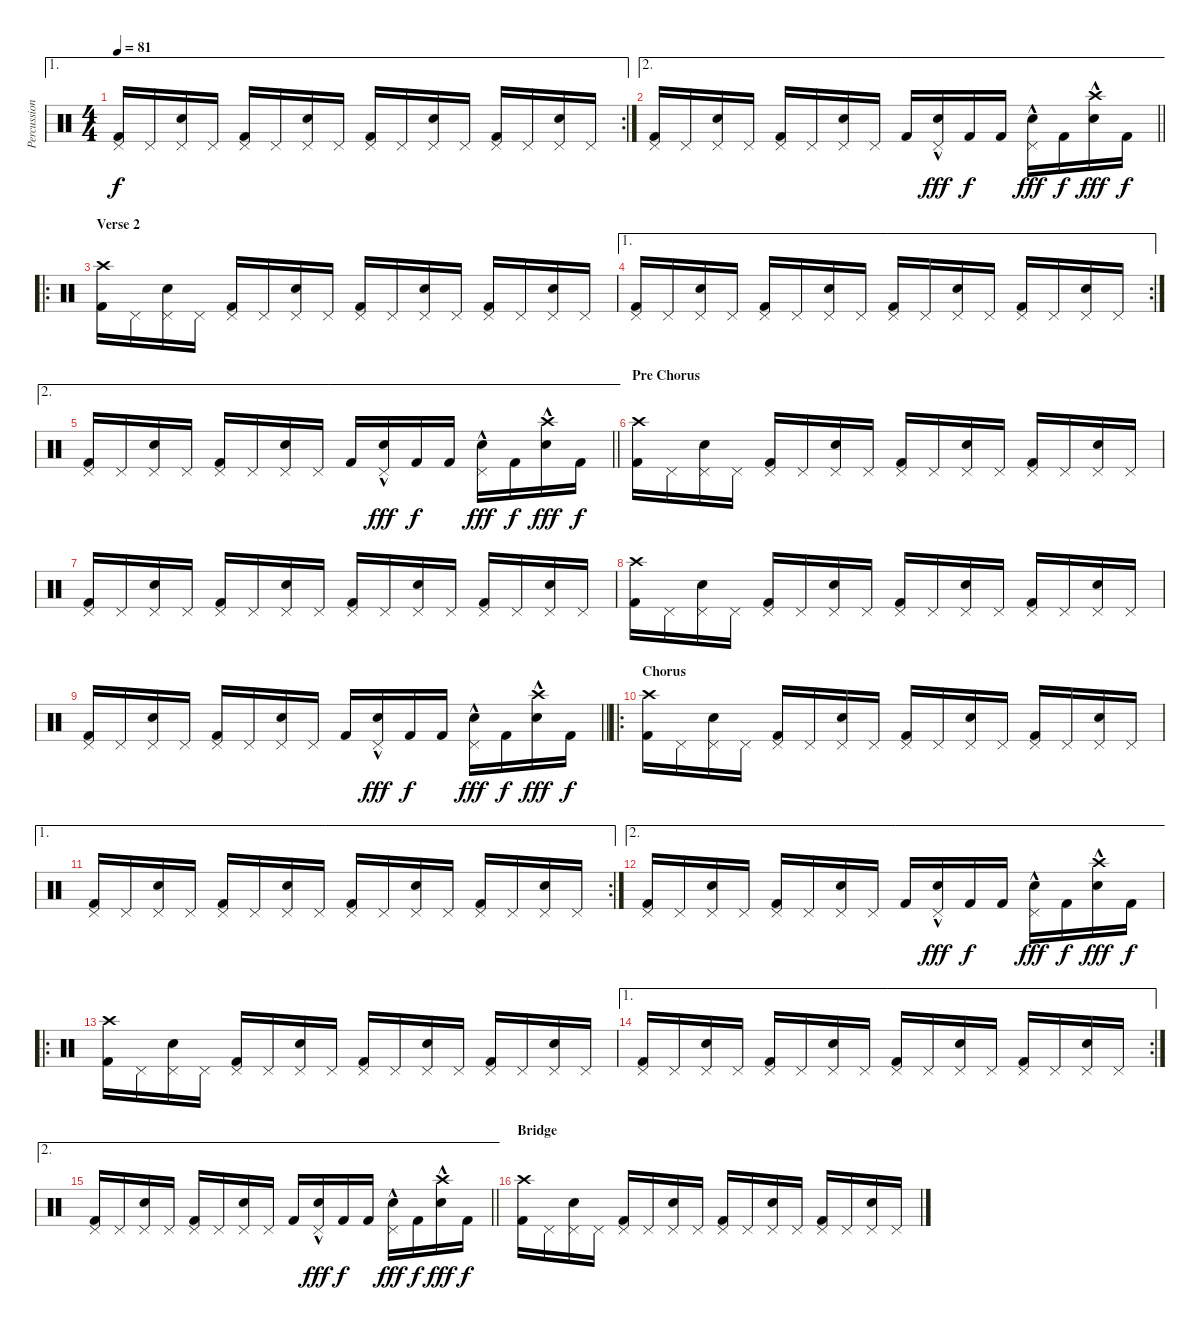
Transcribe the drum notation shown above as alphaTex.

\track ("Percussion" "Percussion") {instrument percussion}
\staff {score}
\articulation defaults
\ae 1
\rc 2
\ts (4 4)
\tempo 81
\clef neutral
\ks c
("Pedal Hi-Hat (hit)" "Kick (hit) 2").16{dy f} "Pedal Hi-Hat (hit)".16 ("Pedal Hi-Hat (hit)" "Electric Snare (hit)").16 "Pedal Hi-Hat (hit)".16 ("Pedal Hi-Hat (hit)" "Kick (hit) 2").16 "Pedal Hi-Hat (hit)".16 ("Pedal Hi-Hat (hit)" "Electric Snare (hit)").16 "Pedal Hi-Hat (hit)".16 ("Pedal Hi-Hat (hit)" "Kick (hit) 2").16 "Pedal Hi-Hat (hit)".16 ("Pedal Hi-Hat (hit)" "Electric Snare (hit)").16 "Pedal Hi-Hat (hit)".16 ("Pedal Hi-Hat (hit)" "Kick (hit) 2").16 "Pedal Hi-Hat (hit)".16 ("Pedal Hi-Hat (hit)" "Electric Snare (hit)").16 "Pedal Hi-Hat (hit)".16 |
\ae 2
\barLineRight lightlight
("Pedal Hi-Hat (hit)" "Kick (hit) 2").16 "Pedal Hi-Hat (hit)".16 ("Pedal Hi-Hat (hit)" "Electric Snare (hit)").16 "Pedal Hi-Hat (hit)".16 ("Pedal Hi-Hat (hit)" "Kick (hit) 2").16 "Pedal Hi-Hat (hit)".16 ("Pedal Hi-Hat (hit)" "Electric Snare (hit)").16 "Pedal Hi-Hat (hit)".16 "Kick (hit) 2".16 ("Pedal Hi-Hat (hit)"{hac} "Electric Snare (hit)"{hac}).16{dy fff} "Kick (hit) 2".16{dy f} "Kick (hit) 2".16 ("Pedal Hi-Hat (hit)"{hac} "Electric Snare (hit)"{hac}).16{dy fff} "Kick (hit) 2".16{dy f} ("Crash high (hit)"{hac} "Electric Snare (hit)"{hac}).16{dy fff} "Kick (hit) 2".16{dy f} |
\ro
\section ("" "Verse 2")
("Crash high (hit)" "Kick (hit) 2").16 "Pedal Hi-Hat (hit)".16 ("Pedal Hi-Hat (hit)" "Electric Snare (hit)").16 "Pedal Hi-Hat (hit)".16 ("Pedal Hi-Hat (hit)" "Kick (hit) 2").16 "Pedal Hi-Hat (hit)".16 ("Pedal Hi-Hat (hit)" "Electric Snare (hit)").16 "Pedal Hi-Hat (hit)".16 ("Pedal Hi-Hat (hit)" "Kick (hit) 2").16 "Pedal Hi-Hat (hit)".16 ("Pedal Hi-Hat (hit)" "Electric Snare (hit)").16 "Pedal Hi-Hat (hit)".16 ("Pedal Hi-Hat (hit)" "Kick (hit) 2").16 "Pedal Hi-Hat (hit)".16 ("Pedal Hi-Hat (hit)" "Electric Snare (hit)").16 "Pedal Hi-Hat (hit)".16 |
\ae 1
\rc 2
("Pedal Hi-Hat (hit)" "Kick (hit) 2").16 "Pedal Hi-Hat (hit)".16 ("Pedal Hi-Hat (hit)" "Electric Snare (hit)").16 "Pedal Hi-Hat (hit)".16 ("Pedal Hi-Hat (hit)" "Kick (hit) 2").16 "Pedal Hi-Hat (hit)".16 ("Pedal Hi-Hat (hit)" "Electric Snare (hit)").16 "Pedal Hi-Hat (hit)".16 ("Pedal Hi-Hat (hit)" "Kick (hit) 2").16 "Pedal Hi-Hat (hit)".16 ("Pedal Hi-Hat (hit)" "Electric Snare (hit)").16 "Pedal Hi-Hat (hit)".16 ("Pedal Hi-Hat (hit)" "Kick (hit) 2").16 "Pedal Hi-Hat (hit)".16 ("Pedal Hi-Hat (hit)" "Electric Snare (hit)").16 "Pedal Hi-Hat (hit)".16 |
\ae 2
\barLineRight lightlight
("Pedal Hi-Hat (hit)" "Kick (hit) 2").16 "Pedal Hi-Hat (hit)".16 ("Pedal Hi-Hat (hit)" "Electric Snare (hit)").16 "Pedal Hi-Hat (hit)".16 ("Pedal Hi-Hat (hit)" "Kick (hit) 2").16 "Pedal Hi-Hat (hit)".16 ("Pedal Hi-Hat (hit)" "Electric Snare (hit)").16 "Pedal Hi-Hat (hit)".16 "Kick (hit) 2".16 ("Pedal Hi-Hat (hit)"{hac} "Electric Snare (hit)"{hac}).16{dy fff} "Kick (hit) 2".16{dy f} "Kick (hit) 2".16 ("Pedal Hi-Hat (hit)"{hac} "Electric Snare (hit)"{hac}).16{dy fff} "Kick (hit) 2".16{dy f} ("Crash high (hit)"{hac} "Electric Snare (hit)"{hac}).16{dy fff} "Kick (hit) 2".16{dy f} |
\section ("" "Pre Chorus")
("Crash high (hit)" "Kick (hit) 2").16 "Pedal Hi-Hat (hit)".16 ("Pedal Hi-Hat (hit)" "Electric Snare (hit)").16 "Pedal Hi-Hat (hit)".16 ("Pedal Hi-Hat (hit)" "Kick (hit) 2").16 "Pedal Hi-Hat (hit)".16 ("Pedal Hi-Hat (hit)" "Electric Snare (hit)").16 "Pedal Hi-Hat (hit)".16 ("Pedal Hi-Hat (hit)" "Kick (hit) 2").16 "Pedal Hi-Hat (hit)".16 ("Pedal Hi-Hat (hit)" "Electric Snare (hit)").16 "Pedal Hi-Hat (hit)".16 ("Pedal Hi-Hat (hit)" "Kick (hit) 2").16 "Pedal Hi-Hat (hit)".16 ("Pedal Hi-Hat (hit)" "Electric Snare (hit)").16 "Pedal Hi-Hat (hit)".16 |
("Pedal Hi-Hat (hit)" "Kick (hit) 2").16 "Pedal Hi-Hat (hit)".16 ("Pedal Hi-Hat (hit)" "Electric Snare (hit)").16 "Pedal Hi-Hat (hit)".16 ("Pedal Hi-Hat (hit)" "Kick (hit) 2").16 "Pedal Hi-Hat (hit)".16 ("Pedal Hi-Hat (hit)" "Electric Snare (hit)").16 "Pedal Hi-Hat (hit)".16 ("Pedal Hi-Hat (hit)" "Kick (hit) 2").16 "Pedal Hi-Hat (hit)".16 ("Pedal Hi-Hat (hit)" "Electric Snare (hit)").16 "Pedal Hi-Hat (hit)".16 ("Pedal Hi-Hat (hit)" "Kick (hit) 2").16 "Pedal Hi-Hat (hit)".16 ("Pedal Hi-Hat (hit)" "Electric Snare (hit)").16 "Pedal Hi-Hat (hit)".16 |
("Crash high (hit)" "Kick (hit) 2").16 "Pedal Hi-Hat (hit)".16 ("Pedal Hi-Hat (hit)" "Electric Snare (hit)").16 "Pedal Hi-Hat (hit)".16 ("Pedal Hi-Hat (hit)" "Kick (hit) 2").16 "Pedal Hi-Hat (hit)".16 ("Pedal Hi-Hat (hit)" "Electric Snare (hit)").16 "Pedal Hi-Hat (hit)".16 ("Pedal Hi-Hat (hit)" "Kick (hit) 2").16 "Pedal Hi-Hat (hit)".16 ("Pedal Hi-Hat (hit)" "Electric Snare (hit)").16 "Pedal Hi-Hat (hit)".16 ("Pedal Hi-Hat (hit)" "Kick (hit) 2").16 "Pedal Hi-Hat (hit)".16 ("Pedal Hi-Hat (hit)" "Electric Snare (hit)").16 "Pedal Hi-Hat (hit)".16 |
\barLineRight lightlight
("Pedal Hi-Hat (hit)" "Kick (hit) 2").16 "Pedal Hi-Hat (hit)".16 ("Pedal Hi-Hat (hit)" "Electric Snare (hit)").16 "Pedal Hi-Hat (hit)".16 ("Pedal Hi-Hat (hit)" "Kick (hit) 2").16 "Pedal Hi-Hat (hit)".16 ("Pedal Hi-Hat (hit)" "Electric Snare (hit)").16 "Pedal Hi-Hat (hit)".16 "Kick (hit) 2".16 ("Pedal Hi-Hat (hit)"{hac} "Electric Snare (hit)"{hac}).16{dy fff} "Kick (hit) 2".16{dy f} "Kick (hit) 2".16 ("Pedal Hi-Hat (hit)"{hac} "Electric Snare (hit)"{hac}).16{dy fff} "Kick (hit) 2".16{dy f} ("Crash high (hit)"{hac} "Electric Snare (hit)"{hac}).16{dy fff} "Kick (hit) 2".16{dy f} |
\ro
\section ("" "Chorus")
("Crash high (hit)" "Kick (hit) 2").16 "Pedal Hi-Hat (hit)".16 ("Pedal Hi-Hat (hit)" "Electric Snare (hit)").16 "Pedal Hi-Hat (hit)".16 ("Pedal Hi-Hat (hit)" "Kick (hit) 2").16 "Pedal Hi-Hat (hit)".16 ("Pedal Hi-Hat (hit)" "Electric Snare (hit)").16 "Pedal Hi-Hat (hit)".16 ("Pedal Hi-Hat (hit)" "Kick (hit) 2").16 "Pedal Hi-Hat (hit)".16 ("Pedal Hi-Hat (hit)" "Electric Snare (hit)").16 "Pedal Hi-Hat (hit)".16 ("Pedal Hi-Hat (hit)" "Kick (hit) 2").16 "Pedal Hi-Hat (hit)".16 ("Pedal Hi-Hat (hit)" "Electric Snare (hit)").16 "Pedal Hi-Hat (hit)".16 |
\ae 1
\rc 2
("Pedal Hi-Hat (hit)" "Kick (hit) 2").16 "Pedal Hi-Hat (hit)".16 ("Pedal Hi-Hat (hit)" "Electric Snare (hit)").16 "Pedal Hi-Hat (hit)".16 ("Pedal Hi-Hat (hit)" "Kick (hit) 2").16 "Pedal Hi-Hat (hit)".16 ("Pedal Hi-Hat (hit)" "Electric Snare (hit)").16 "Pedal Hi-Hat (hit)".16 ("Pedal Hi-Hat (hit)" "Kick (hit) 2").16 "Pedal Hi-Hat (hit)".16 ("Pedal Hi-Hat (hit)" "Electric Snare (hit)").16 "Pedal Hi-Hat (hit)".16 ("Pedal Hi-Hat (hit)" "Kick (hit) 2").16 "Pedal Hi-Hat (hit)".16 ("Pedal Hi-Hat (hit)" "Electric Snare (hit)").16 "Pedal Hi-Hat (hit)".16 |
\ae 2
("Pedal Hi-Hat (hit)" "Kick (hit) 2").16 "Pedal Hi-Hat (hit)".16 ("Pedal Hi-Hat (hit)" "Electric Snare (hit)").16 "Pedal Hi-Hat (hit)".16 ("Pedal Hi-Hat (hit)" "Kick (hit) 2").16 "Pedal Hi-Hat (hit)".16 ("Pedal Hi-Hat (hit)" "Electric Snare (hit)").16 "Pedal Hi-Hat (hit)".16 "Kick (hit) 2".16 ("Pedal Hi-Hat (hit)"{hac} "Electric Snare (hit)"{hac}).16{dy fff} "Kick (hit) 2".16{dy f} "Kick (hit) 2".16 ("Pedal Hi-Hat (hit)"{hac} "Electric Snare (hit)"{hac}).16{dy fff} "Kick (hit) 2".16{dy f} ("Crash high (hit)"{hac} "Electric Snare (hit)"{hac}).16{dy fff} "Kick (hit) 2".16{dy f} |
\ro
("Crash high (hit)" "Kick (hit) 2").16 "Pedal Hi-Hat (hit)".16 ("Pedal Hi-Hat (hit)" "Electric Snare (hit)").16 "Pedal Hi-Hat (hit)".16 ("Pedal Hi-Hat (hit)" "Kick (hit) 2").16 "Pedal Hi-Hat (hit)".16 ("Pedal Hi-Hat (hit)" "Electric Snare (hit)").16 "Pedal Hi-Hat (hit)".16 ("Pedal Hi-Hat (hit)" "Kick (hit) 2").16 "Pedal Hi-Hat (hit)".16 ("Pedal Hi-Hat (hit)" "Electric Snare (hit)").16 "Pedal Hi-Hat (hit)".16 ("Pedal Hi-Hat (hit)" "Kick (hit) 2").16 "Pedal Hi-Hat (hit)".16 ("Pedal Hi-Hat (hit)" "Electric Snare (hit)").16 "Pedal Hi-Hat (hit)".16 |
\ae 1
\rc 2
("Pedal Hi-Hat (hit)" "Kick (hit) 2").16 "Pedal Hi-Hat (hit)".16 ("Pedal Hi-Hat (hit)" "Electric Snare (hit)").16 "Pedal Hi-Hat (hit)".16 ("Pedal Hi-Hat (hit)" "Kick (hit) 2").16 "Pedal Hi-Hat (hit)".16 ("Pedal Hi-Hat (hit)" "Electric Snare (hit)").16 "Pedal Hi-Hat (hit)".16 ("Pedal Hi-Hat (hit)" "Kick (hit) 2").16 "Pedal Hi-Hat (hit)".16 ("Pedal Hi-Hat (hit)" "Electric Snare (hit)").16 "Pedal Hi-Hat (hit)".16 ("Pedal Hi-Hat (hit)" "Kick (hit) 2").16 "Pedal Hi-Hat (hit)".16 ("Pedal Hi-Hat (hit)" "Electric Snare (hit)").16 "Pedal Hi-Hat (hit)".16 |
\ae 2
\barLineRight lightlight
("Pedal Hi-Hat (hit)" "Kick (hit) 2").16 "Pedal Hi-Hat (hit)".16 ("Pedal Hi-Hat (hit)" "Electric Snare (hit)").16 "Pedal Hi-Hat (hit)".16 ("Pedal Hi-Hat (hit)" "Kick (hit) 2").16 "Pedal Hi-Hat (hit)".16 ("Pedal Hi-Hat (hit)" "Electric Snare (hit)").16 "Pedal Hi-Hat (hit)".16 "Kick (hit) 2".16 ("Pedal Hi-Hat (hit)"{hac} "Electric Snare (hit)"{hac}).16{dy fff} "Kick (hit) 2".16{dy f} "Kick (hit) 2".16 ("Pedal Hi-Hat (hit)"{hac} "Electric Snare (hit)"{hac}).16{dy fff} "Kick (hit) 2".16{dy f} ("Crash high (hit)"{hac} "Electric Snare (hit)"{hac}).16{dy fff} "Kick (hit) 2".16{dy f} |
\section ("" "Bridge")
("Crash high (hit)" "Kick (hit) 2").16 "Pedal Hi-Hat (hit)".16 ("Pedal Hi-Hat (hit)" "Electric Snare (hit)").16 "Pedal Hi-Hat (hit)".16 ("Pedal Hi-Hat (hit)" "Kick (hit) 2").16 "Pedal Hi-Hat (hit)".16 ("Pedal Hi-Hat (hit)" "Electric Snare (hit)").16 "Pedal Hi-Hat (hit)".16 ("Pedal Hi-Hat (hit)" "Kick (hit) 2").16 "Pedal Hi-Hat (hit)".16 ("Pedal Hi-Hat (hit)" "Electric Snare (hit)").16 "Pedal Hi-Hat (hit)".16 ("Pedal Hi-Hat (hit)" "Kick (hit) 2").16 "Pedal Hi-Hat (hit)".16 ("Pedal Hi-Hat (hit)" "Electric Snare (hit)").16 "Pedal Hi-Hat (hit)".16
